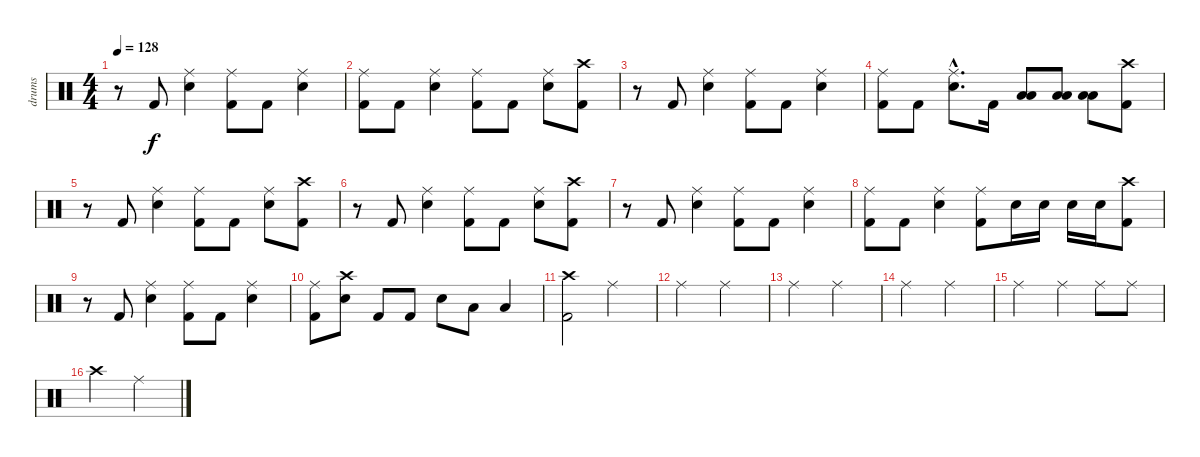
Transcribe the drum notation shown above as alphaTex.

\track ("drums" "drums") {instrument percussion}
\staff {score}
\articulation defaults
\ts (4 4)
\tempo 128
\clef neutral
\ks c
r.8{dy f} "Kick (hit) 2".8 ("Ride (middle)" "Electric Snare (hit)").4 ("Ride (middle)" "Kick (hit) 2").8 "Kick (hit) 2".8 ("Ride (middle)" "Electric Snare (hit)").4 |
("Ride (middle)" "Kick (hit) 2").8 "Kick (hit) 2".8 ("Ride (middle)" "Electric Snare (hit)").4 ("Ride (middle)" "Kick (hit) 2").8 "Kick (hit) 2".8 ("Ride (middle)" "Electric Snare (hit)").8 ("Crash high (hit)" "Kick (hit) 2").8 |
r.8 "Kick (hit) 2".8 ("Ride (middle)" "Electric Snare (hit)").4 ("Ride (middle)" "Kick (hit) 2").8 "Kick (hit) 2".8 ("Ride (middle)" "Electric Snare (hit)").4 |
("Ride (middle)" "Kick (hit) 2").8 "Kick (hit) 2".8 ("Ride (middle)"{hac} "Electric Snare (hit)"{hac}).8{d} "Kick (hit) 2".16 ("Low Tom (hit)" "Low Floor Tom (hit)").8 ("Low Tom (hit)" "Low Floor Tom (hit)").8 ("Low Tom (hit)" "Low Floor Tom (hit)").8 ("Crash high (hit)" "Kick (hit) 2").8 |
r.8 "Kick (hit) 2".8 ("Ride (middle)" "Electric Snare (hit)").4 ("Ride (middle)" "Kick (hit) 2").8 "Kick (hit) 2".8 ("Ride (middle)" "Electric Snare (hit)").8 ("Crash high (hit)" "Kick (hit) 2").8 |
r.8 "Kick (hit) 2".8 ("Ride (middle)" "Electric Snare (hit)").4 ("Ride (middle)" "Kick (hit) 2").8 "Kick (hit) 2".8 ("Ride (middle)" "Electric Snare (hit)").8 ("Crash high (hit)" "Kick (hit) 2").8 |
r.8 "Kick (hit) 2".8 ("Ride (middle)" "Electric Snare (hit)").4 ("Ride (middle)" "Kick (hit) 2").8 "Kick (hit) 2".8 ("Ride (middle)" "Electric Snare (hit)").4 |
("Ride (middle)" "Kick (hit) 2").8 "Kick (hit) 2".8 ("Ride (middle)" "Electric Snare (hit)").4 ("Ride (middle)" "Kick (hit) 2").8 "Electric Snare (hit)".16 "Electric Snare (hit)".16 "Electric Snare (hit)".16 "Electric Snare (hit)".16 ("Crash high (hit)" "Kick (hit) 2").8 |
r.8 "Kick (hit) 2".8 ("Ride (middle)" "Electric Snare (hit)").4 ("Ride (middle)" "Kick (hit) 2").8 "Kick (hit) 2".8 ("Ride (middle)" "Electric Snare (hit)").4 |
("Ride (middle)" "Kick (hit) 2").8 ("Crash high (hit)" "Electric Snare (hit)").8 "Kick (hit) 2".8 "Kick (hit) 2".8 "Electric Snare (hit)".8 "Low Tom (hit)".8 "Low Floor Tom (hit)".4 |
("Crash high (hit)" "Kick (hit) 2").2 "Ride (middle)".2 |
"Ride (middle)".2 "Ride (middle)".2 |
"Ride (middle)".2 "Ride (middle)".2 |
"Ride (middle)".2 "Ride (middle)".2 |
"Ride (middle)".2 "Ride (middle)".4 "Ride (middle)".8 "Ride (middle)".8 |
"Crash high (hit)".2 "Ride (middle)".2
